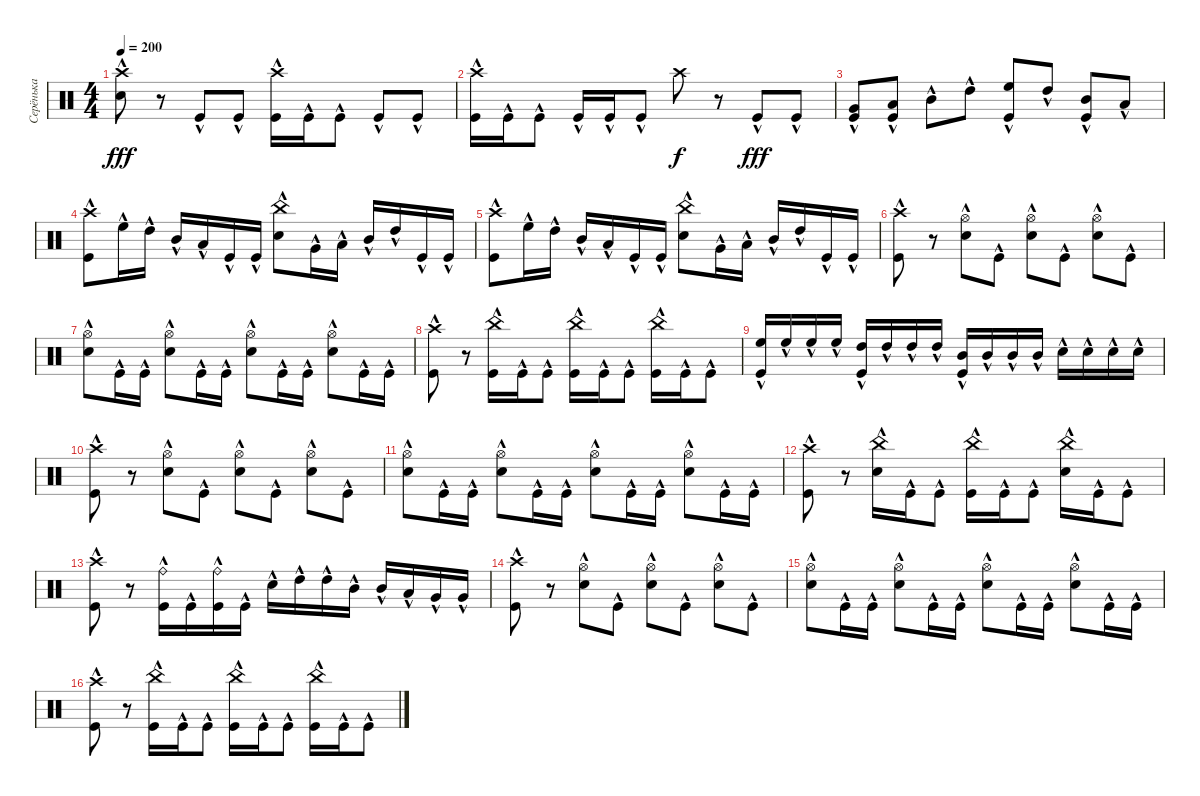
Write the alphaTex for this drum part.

\track ("Серёнька" "Серёнька") {instrument percussion}
\staff {score}
\articulation defaults
\ts (4 4)
\tempo 200
\clef neutral
\ks c
("Crash high (hit)" "Snare (hit) 2"{hac}).8{dy fff} r.8 "Kick (hit)"{hac}.8 "Kick (hit)"{hac}.8 ("Crash high (hit)" "Kick (hit)"{hac}).16 "Kick (hit)"{hac}.16 "Kick (hit)"{hac}.8 "Kick (hit)"{hac}.8 "Kick (hit)"{hac}.8 |
("Crash high (hit)" "Kick (hit)"{hac}).16 "Kick (hit)"{hac}.16 "Kick (hit)"{hac}.8 "Kick (hit)"{hac}.16 "Kick (hit)"{hac}.16 "Kick (hit)"{hac}.8 "Crash high (hit)".8{dy f} r.8 "Kick (hit)"{hac}.8{dy fff} "Kick (hit)"{hac}.8 |
("Very Low Tom (hit)"{hac} "Kick (hit)"{hac}).8 ("Low Tom (hit)"{hac} "Kick (hit)"{hac}).8 "Mid Tom (hit)"{hac}.8 "High Tom (hit)"{hac}.8 ("High Floor Tom (hit)"{hac} "Kick (hit)"{hac}).8 "High Tom (hit)"{hac}.8 ("Mid Tom (hit)"{hac} "Kick (hit)"{hac}).8 "Low Tom (hit)"{hac}.8 |
("Crash high (hit)" "Kick (hit)"{hac}).8 "High Floor Tom (hit)"{hac}.16 "High Tom (hit)"{hac}.16 "Mid Tom (hit)"{hac}.16 "Low Tom (hit)"{hac}.16 "Kick (hit)"{hac}.16 "Kick (hit)"{hac}.16 ("China (hit)" "Snare (hit) 2"{hac}).8 "Very Low Tom (hit)"{hac}.16 "Low Tom (hit)"{hac}.16 "Mid Tom (hit)"{hac}.16 "High Tom (hit)"{hac}.16 "Kick (hit)"{hac}.16 "Kick (hit)"{hac}.16 |
("Crash high (hit)" "Kick (hit)"{hac}).8 "High Floor Tom (hit)"{hac}.16 "High Tom (hit)"{hac}.16 "Mid Tom (hit)"{hac}.16 "Low Tom (hit)"{hac}.16 "Kick (hit)"{hac}.16 "Kick (hit)"{hac}.16 ("China (hit)" "Snare (hit) 2"{hac}).8 "Very Low Tom (hit)"{hac}.16 "Low Tom (hit)"{hac}.16 "Mid Tom (hit)"{hac}.16 "High Tom (hit)"{hac}.16 "Kick (hit)"{hac}.16 "Kick (hit)"{hac}.16 |
("Crash high (hit)" "Kick (hit)"{hac}).8 r.8 ("Hi-Hat (open)" "Snare (hit) 2"{hac}).8 "Kick (hit)"{hac}.8 ("Hi-Hat (open)" "Snare (hit) 2"{hac}).8 "Kick (hit)"{hac}.8 ("Hi-Hat (open)" "Snare (hit) 2"{hac}).8 "Kick (hit)"{hac}.8 |
("Hi-Hat (open)" "Snare (hit) 2"{hac}).8 "Kick (hit)"{hac}.16 "Kick (hit)"{hac}.16 ("Hi-Hat (open)" "Snare (hit) 2"{hac}).8 "Kick (hit)"{hac}.16 "Kick (hit)"{hac}.16 ("Hi-Hat (open)" "Snare (hit) 2"{hac}).8 "Kick (hit)"{hac}.16 "Kick (hit)"{hac}.16 ("Hi-Hat (open)" "Snare (hit) 2"{hac}).8 "Kick (hit)"{hac}.16 "Kick (hit)"{hac}.16 |
("Crash high (hit)" "Kick (hit)"{hac}).8 r.8 ("China (hit)" "Kick (hit)"{hac}).16 "Kick (hit)"{hac}.16 "Kick (hit)"{hac}.8 ("China (hit)" "Kick (hit)"{hac}).16 "Kick (hit)"{hac}.16 "Kick (hit)"{hac}.8 ("China (hit)" "Kick (hit)"{hac}).16 "Kick (hit)"{hac}.16 "Kick (hit)"{hac}.8 |
("Kick (hit)"{hac} "High Floor Tom (hit)"{hac}).16 "High Floor Tom (hit)"{hac}.16 "High Floor Tom (hit)"{hac}.16 "High Floor Tom (hit)"{hac}.16 ("Kick (hit)"{hac} "High Tom (hit)"{hac}).16 "High Tom (hit)"{hac}.16 "High Tom (hit)"{hac}.16 "High Tom (hit)"{hac}.16 ("Kick (hit)"{hac} "Mid Tom (hit)"{hac}).16 "Mid Tom (hit)"{hac}.16 "Mid Tom (hit)"{hac}.16 "Mid Tom (hit)"{hac}.16 "Snare (hit) 2"{hac}.16 "Snare (hit) 2"{hac}.16 "Snare (hit) 2"{hac}.16 "Snare (hit) 2"{hac}.16 |
("Crash high (hit)" "Kick (hit)"{hac}).8 r.8 ("Hi-Hat (open)" "Snare (hit) 2"{hac}).8 "Kick (hit)"{hac}.8 ("Hi-Hat (open)" "Snare (hit) 2"{hac}).8 "Kick (hit)"{hac}.8 ("Hi-Hat (open)" "Snare (hit) 2"{hac}).8 "Kick (hit)"{hac}.8 |
("Hi-Hat (open)" "Snare (hit) 2"{hac}).8 "Kick (hit)"{hac}.16 "Kick (hit)"{hac}.16 ("Hi-Hat (open)" "Snare (hit) 2"{hac}).8 "Kick (hit)"{hac}.16 "Kick (hit)"{hac}.16 ("Hi-Hat (open)" "Snare (hit) 2"{hac}).8 "Kick (hit)"{hac}.16 "Kick (hit)"{hac}.16 ("Hi-Hat (open)" "Snare (hit) 2"{hac}).8 "Kick (hit)"{hac}.16 "Kick (hit)"{hac}.16 |
("Crash high (hit)" "Kick (hit)"{hac}).8 r.8 ("China (hit)" "Snare (hit) 2"{hac}).16 "Kick (hit)"{hac}.16 "Kick (hit)"{hac}.8 ("China (hit)" "Kick (hit)"{hac}).16 "Kick (hit)"{hac}.16 "Kick (hit)"{hac}.8 ("China (hit)" "Snare (hit) 2"{hac}).16 "Kick (hit)"{hac}.16 "Kick (hit)"{hac}.8 |
("Crash high (hit)"{hac} "Kick (hit)"{hac}).8 r.8 ("Ride (bell)" "Kick (hit)"{hac}).16 "Kick (hit)"{hac}.16 ("Ride (bell)" "Kick (hit)"{hac}).16 "Kick (hit)"{hac}.16 "Snare (hit) 2"{hac}.16 "High Tom (hit)"{hac}.16 "High Tom (hit)"{hac}.16 "Mid Tom (hit)"{hac}.16 "Mid Tom (hit)"{hac}.16 "Low Tom (hit)"{hac}.16 "Very Low Tom (hit)"{hac}.16 "Very Low Tom (hit)"{hac}.16 |
("Crash high (hit)" "Kick (hit)"{hac}).8 r.8 ("Hi-Hat (open)" "Snare (hit) 2"{hac}).8 "Kick (hit)"{hac}.8 ("Hi-Hat (open)" "Snare (hit) 2"{hac}).8 "Kick (hit)"{hac}.8 ("Hi-Hat (open)" "Snare (hit) 2"{hac}).8 "Kick (hit)"{hac}.8 |
("Hi-Hat (open)" "Snare (hit) 2"{hac}).8 "Kick (hit)"{hac}.16 "Kick (hit)"{hac}.16 ("Hi-Hat (open)" "Snare (hit) 2"{hac}).8 "Kick (hit)"{hac}.16 "Kick (hit)"{hac}.16 ("Hi-Hat (open)" "Snare (hit) 2"{hac}).8 "Kick (hit)"{hac}.16 "Kick (hit)"{hac}.16 ("Hi-Hat (open)" "Snare (hit) 2"{hac}).8 "Kick (hit)"{hac}.16 "Kick (hit)"{hac}.16 |
("Crash high (hit)" "Kick (hit)"{hac}).8 r.8 ("China (hit)" "Kick (hit)"{hac}).16 "Kick (hit)"{hac}.16 "Kick (hit)"{hac}.8 ("China (hit)" "Kick (hit)"{hac}).16 "Kick (hit)"{hac}.16 "Kick (hit)"{hac}.8 ("China (hit)" "Kick (hit)"{hac}).16 "Kick (hit)"{hac}.16 "Kick (hit)"{hac}.8
